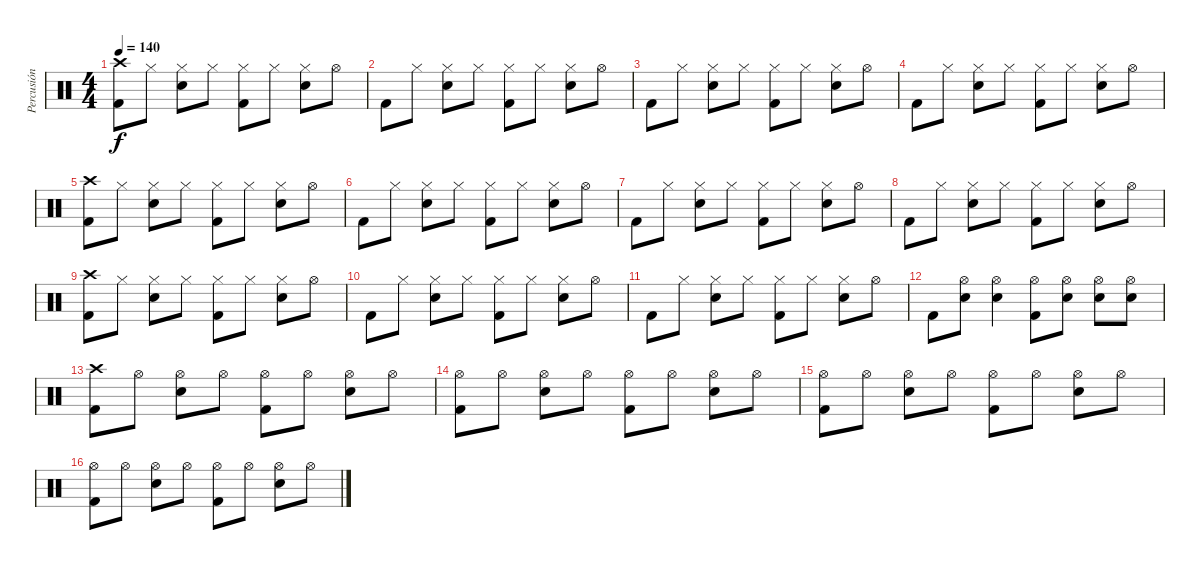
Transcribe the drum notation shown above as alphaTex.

\track ("Percusión" "Percusión") {instrument percussion}
\staff {score}
\articulation defaults
\ts (4 4)
\tempo 140
\clef neutral
\ks c
("Crash high (hit)" "Kick (hit) 2").8{dy f} "Hi-Hat (closed)".8 ("Hi-Hat (closed)" "Electric Snare (hit)").8 "Hi-Hat (closed)".8 ("Hi-Hat (closed)" "Kick (hit) 2").8 "Hi-Hat (closed)".8 ("Hi-Hat (closed)" "Electric Snare (hit)").8 "Hi-Hat (open)".8 |
"Kick (hit) 2".8 "Hi-Hat (closed)".8 ("Hi-Hat (closed)" "Electric Snare (hit)").8 "Hi-Hat (closed)".8 ("Hi-Hat (closed)" "Kick (hit) 2").8 "Hi-Hat (closed)".8 ("Hi-Hat (closed)" "Electric Snare (hit)").8 "Hi-Hat (open)".8 |
"Kick (hit) 2".8 "Hi-Hat (closed)".8 ("Hi-Hat (closed)" "Electric Snare (hit)").8 "Hi-Hat (closed)".8 ("Hi-Hat (closed)" "Kick (hit) 2").8 "Hi-Hat (closed)".8 ("Hi-Hat (closed)" "Electric Snare (hit)").8 "Hi-Hat (open)".8 |
"Kick (hit) 2".8 "Hi-Hat (closed)".8 ("Hi-Hat (closed)" "Electric Snare (hit)").8 "Hi-Hat (closed)".8 ("Hi-Hat (closed)" "Kick (hit) 2").8 "Hi-Hat (closed)".8 ("Hi-Hat (closed)" "Electric Snare (hit)").8 "Hi-Hat (open)".8 |
("Crash high (hit)" "Kick (hit) 2").8 "Hi-Hat (closed)".8 ("Hi-Hat (closed)" "Electric Snare (hit)").8 "Hi-Hat (closed)".8 ("Hi-Hat (closed)" "Kick (hit) 2").8 "Hi-Hat (closed)".8 ("Hi-Hat (closed)" "Electric Snare (hit)").8 "Hi-Hat (open)".8 |
"Kick (hit) 2".8 "Hi-Hat (closed)".8 ("Hi-Hat (closed)" "Electric Snare (hit)").8 "Hi-Hat (closed)".8 ("Hi-Hat (closed)" "Kick (hit) 2").8 "Hi-Hat (closed)".8 ("Hi-Hat (closed)" "Electric Snare (hit)").8 "Hi-Hat (open)".8 |
"Kick (hit) 2".8 "Hi-Hat (closed)".8 ("Hi-Hat (closed)" "Electric Snare (hit)").8 "Hi-Hat (closed)".8 ("Hi-Hat (closed)" "Kick (hit) 2").8 "Hi-Hat (closed)".8 ("Hi-Hat (closed)" "Electric Snare (hit)").8 "Hi-Hat (open)".8 |
"Kick (hit) 2".8 "Hi-Hat (closed)".8 ("Hi-Hat (closed)" "Electric Snare (hit)").8 "Hi-Hat (closed)".8 ("Hi-Hat (closed)" "Kick (hit) 2").8 "Hi-Hat (closed)".8 ("Hi-Hat (closed)" "Electric Snare (hit)").8 "Hi-Hat (open)".8 |
("Crash high (hit)" "Kick (hit) 2").8 "Hi-Hat (closed)".8 ("Hi-Hat (closed)" "Electric Snare (hit)").8 "Hi-Hat (closed)".8 ("Hi-Hat (closed)" "Kick (hit) 2").8 "Hi-Hat (closed)".8 ("Hi-Hat (closed)" "Electric Snare (hit)").8 "Hi-Hat (open)".8 |
"Kick (hit) 2".8 "Hi-Hat (closed)".8 ("Hi-Hat (closed)" "Electric Snare (hit)").8 "Hi-Hat (closed)".8 ("Hi-Hat (closed)" "Kick (hit) 2").8 "Hi-Hat (closed)".8 ("Hi-Hat (closed)" "Electric Snare (hit)").8 "Hi-Hat (open)".8 |
"Kick (hit) 2".8 "Hi-Hat (closed)".8 ("Hi-Hat (closed)" "Electric Snare (hit)").8 "Hi-Hat (closed)".8 ("Hi-Hat (closed)" "Kick (hit) 2").8 "Hi-Hat (closed)".8 ("Hi-Hat (closed)" "Electric Snare (hit)").8 "Hi-Hat (open)".8 |
"Kick (hit) 2".8 ("Hi-Hat (open)" "Electric Snare (hit)").8 ("Hi-Hat (open)" "Electric Snare (hit)").4 ("Hi-Hat (open)" "Kick (hit) 2").8 ("Hi-Hat (open)" "Electric Snare (hit)").8 ("Hi-Hat (open)" "Electric Snare (hit)").8 ("Hi-Hat (open)" "Electric Snare (hit)").8 |
("Crash high (hit)" "Kick (hit) 2").8 "Hi-Hat (open)".8 ("Hi-Hat (open)" "Electric Snare (hit)").8 "Hi-Hat (open)".8 ("Hi-Hat (open)" "Kick (hit) 2").8 "Hi-Hat (open)".8 ("Hi-Hat (open)" "Electric Snare (hit)").8 "Hi-Hat (open)".8 |
("Hi-Hat (open)" "Kick (hit) 2").8 "Hi-Hat (open)".8 ("Hi-Hat (open)" "Electric Snare (hit)").8 "Hi-Hat (open)".8 ("Hi-Hat (open)" "Kick (hit) 2").8 "Hi-Hat (open)".8 ("Hi-Hat (open)" "Electric Snare (hit)").8 "Hi-Hat (open)".8 |
("Hi-Hat (open)" "Kick (hit) 2").8 "Hi-Hat (open)".8 ("Hi-Hat (open)" "Electric Snare (hit)").8 "Hi-Hat (open)".8 ("Hi-Hat (open)" "Kick (hit) 2").8 "Hi-Hat (open)".8 ("Hi-Hat (open)" "Electric Snare (hit)").8 "Hi-Hat (open)".8 |
("Hi-Hat (open)" "Kick (hit) 2").8 "Hi-Hat (open)".8 ("Hi-Hat (open)" "Electric Snare (hit)").8 "Hi-Hat (open)".8 ("Hi-Hat (open)" "Kick (hit) 2").8 "Hi-Hat (open)".8 ("Hi-Hat (open)" "Electric Snare (hit)").8 "Hi-Hat (open)".8
